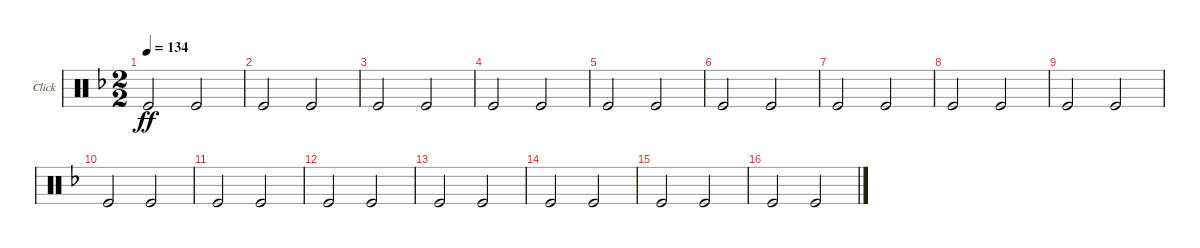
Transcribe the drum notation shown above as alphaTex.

\bracketExtendMode groupsimilarinstruments
\useSystemSignSeparator
\multiTrackTrackNamePolicy allsystems
\firstSystemTrackNameOrientation horizontal
\otherSystemsTrackNameOrientation horizontal
\track ("Click" "Click") {instrument percussion}
\staff {score}
\articulation defaults
\ts (2 2)
\scale
0.5
\tempo 134
\accidentals auto
\clef neutral
\ottava regular
\simile none
\scale
0.320107
\ks f "Kick (hit)".2{dy ff} "Kick (hit)".2
|
\scale
0.5
\scale
0.221513 "Kick (hit)".2 "Kick (hit)".2 |
\scale
0.5
\scale
0.252976 "Kick (hit)".2 "Kick (hit)".2 |
\scale
0.5
\scale
0.27381 "Kick (hit)".2 "Kick (hit)".2 |
\scale
0.5
\scale
0.238095 "Kick (hit)".2 "Kick (hit)".2 |
\scale
0.5
\scale
0.27381 "Kick (hit)".2 "Kick (hit)".2 |
\scale
0.38961
\scale
0.25 "Kick (hit)".2 "Kick (hit)".2 |
\scale
0.61039
\scale
0.249313 "Kick (hit)".2 "Kick (hit)".2 |
\scale
0.5
\scale
0.320588 "Kick (hit)".2 "Kick (hit)".2 |
\scale
0.220529 "Kick (hit)".2 "Kick (hit)".2 |
\scale
0.242232 "Kick (hit)".2 "Kick (hit)".2 |
\scale
0.268489 "Kick (hit)".2 "Kick (hit)".2 |
\scale
0.5
\scale
0.235294 "Kick (hit)".2 "Kick (hit)".2 |
\scale
0.5
\scale
0.270588 "Kick (hit)".2 "Kick (hit)".2 |
\scale
0.5
\scale
0.258824 "Kick (hit)".2 "Kick (hit)".2 |
\scale
0.5
\scale
0.23307 "Kick (hit)".2 "Kick (hit)".2
